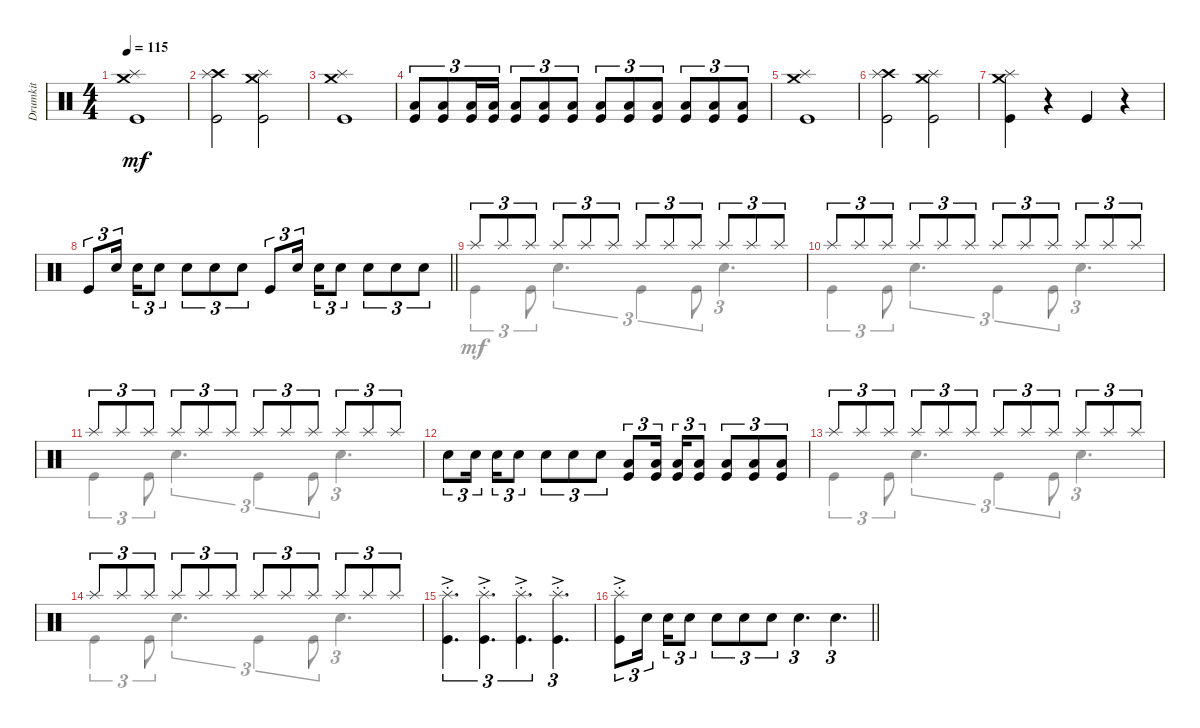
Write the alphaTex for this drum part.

\track ("Drumkit" "Drumkit") {instrument percussion}
\staff {score}
\articulation defaults
\voice
\ts (4 4)
\tempo 115
\clef neutral
\ks c
("Kick (hit)" "Splash (hit)" "Crash medium (hit)").1{dy mf} |
("Kick (hit)" "Crash high (hit)" "Splash (hit)").2 ("Kick (hit)" "Splash (hit)" "Crash medium (hit)").2 |
("Kick (hit)" "Splash (hit)" "Crash medium (hit)").1 |
("Low Tom (hit)" "Kick (hit)").8{tu (3 2)} ("Kick (hit)" "Low Tom (hit)").8{tu (3 2)} ("Low Tom (hit)" "Kick (hit)").16{tu (3 2)} ("Low Tom (hit)" "Kick (hit)").16{tu (3 2)} ("Low Tom (hit)" "Kick (hit)").8{tu (3 2)} ("Low Tom (hit)" "Kick (hit)").8{tu (3 2)} ("Low Tom (hit)" "Kick (hit)").8{tu (3 2)} ("Low Tom (hit)" "Kick (hit)").8{tu (3 2)} ("Low Tom (hit)" "Kick (hit)").8{tu (3 2)} ("Low Tom (hit)" "Kick (hit)").8{tu (3 2)} ("Low Tom (hit)" "Kick (hit)").8{tu (3 2)} ("Low Tom (hit)" "Kick (hit)").8{tu (3 2)} ("Low Tom (hit)" "Kick (hit)").8{tu (3 2)} |
("Kick (hit)" "Splash (hit)" "Crash medium (hit)").1 |
("Kick (hit)" "Crash high (hit)" "Splash (hit)").2 ("Kick (hit)" "Splash (hit)" "Crash medium (hit)").2 |
("Kick (hit)" "Splash (hit)" "Crash medium (hit)").4 r.4 "Kick (hit)".4 r.4 |
\barLineRight lightlight "Kick (hit)".8{tu (3 2)} "Snare (hit) 2".16{tu (3 2)} "Snare (hit) 2".16{tu (3 2)} "Snare (hit) 2".8{tu (3 2)} "Snare (hit) 2".8{tu (3 2)} "Snare (hit) 2".8{tu (3 2)} "Snare (hit) 2".8{tu (3 2)} "Kick (hit)".8{tu (3 2)} "Snare (hit) 2".16{tu (3 2)} "Snare (hit) 2".16{tu (3 2)} "Snare (hit) 2".8{tu (3 2)} "Snare (hit) 2".8{tu (3 2)} "Snare (hit) 2".8{tu (3 2)} "Snare (hit) 2".8{tu (3 2)}
|
"Splash (hit)".8{tu (3 2)} "Splash (hit)".8{tu (3 2)} "Splash (hit)".8{tu (3 2)} "Splash (hit)".8{tu (3 2)} "Splash (hit)".8{tu (3 2)} "Splash (hit)".8{tu (3 2)} "Splash (hit)".8{tu (3 2)} "Splash (hit)".8{tu (3 2)} "Splash (hit)".8{tu (3 2)} "Splash (hit)".8{tu (3 2)} "Splash (hit)".8{tu (3 2)} "Splash (hit)".8{tu (3 2)} |
"Splash (hit)".8{tu (3 2)} "Splash (hit)".8{tu (3 2)} "Splash (hit)".8{tu (3 2)} "Splash (hit)".8{tu (3 2)} "Splash (hit)".8{tu (3 2)} "Splash (hit)".8{tu (3 2)} "Splash (hit)".8{tu (3 2)} "Splash (hit)".8{tu (3 2)} "Splash (hit)".8{tu (3 2)} "Splash (hit)".8{tu (3 2)} "Splash (hit)".8{tu (3 2)} "Splash (hit)".8{tu (3 2)} |
"Splash (hit)".8{tu (3 2)} "Splash (hit)".8{tu (3 2)} "Splash (hit)".8{tu (3 2)} "Splash (hit)".8{tu (3 2)} "Splash (hit)".8{tu (3 2)} "Splash (hit)".8{tu (3 2)} "Splash (hit)".8{tu (3 2)} "Splash (hit)".8{tu (3 2)} "Splash (hit)".8{tu (3 2)} "Splash (hit)".8{tu (3 2)} "Splash (hit)".8{tu (3 2)} "Splash (hit)".8{tu (3 2)} |
"Snare (hit) 2".8{tu (3 2)} "Snare (hit) 2".16{tu (3 2)} "Snare (hit) 2".16{tu (3 2)} "Snare (hit) 2".8{tu (3 2)} "Snare (hit) 2".8{tu (3 2)} "Snare (hit) 2".8{tu (3 2)} "Snare (hit) 2".8{tu (3 2)} ("Kick (hit)" "Low Tom (hit)").8{tu (3 2)} ("Low Tom (hit)" "Kick (hit)").16{tu (3 2)} ("Low Tom (hit)" "Kick (hit)").16{tu (3 2)} ("Low Tom (hit)" "Kick (hit)").8{tu (3 2)} ("Low Tom (hit)" "Kick (hit)").8{tu (3 2)} ("Low Tom (hit)" "Kick (hit)").8{tu (3 2)} ("Low Tom (hit)" "Kick (hit)").8{tu (3 2)} |
"Splash (hit)".8{tu (3 2)} "Splash (hit)".8{tu (3 2)} "Splash (hit)".8{tu (3 2)} "Splash (hit)".8{tu (3 2)} "Splash (hit)".8{tu (3 2)} "Splash (hit)".8{tu (3 2)} "Splash (hit)".8{tu (3 2)} "Splash (hit)".8{tu (3 2)} "Splash (hit)".8{tu (3 2)} "Splash (hit)".8{tu (3 2)} "Splash (hit)".8{tu (3 2)} "Splash (hit)".8{tu (3 2)} |
"Splash (hit)".8{tu (3 2)} "Splash (hit)".8{tu (3 2)} "Splash (hit)".8{tu (3 2)} "Splash (hit)".8{tu (3 2)} "Splash (hit)".8{tu (3 2)} "Splash (hit)".8{tu (3 2)} "Splash (hit)".8{tu (3 2)} "Splash (hit)".8{tu (3 2)} "Splash (hit)".8{tu (3 2)} "Splash (hit)".8{tu (3 2)} "Splash (hit)".8{tu (3 2)} "Splash (hit)".8{tu (3 2)} |
("Splash (hit)"{ac st} "Kick (hit)").4{d tu (3 2)} ("Splash (hit)"{ac st} "Kick (hit)").4{d tu (3 2)} ("Splash (hit)"{ac st} "Kick (hit)").4{d tu (3 2)} ("Splash (hit)"{ac st} "Kick (hit)").4{d tu (3 2)} |
\barLineRight lightlight
("Splash (hit)"{ac st} "Kick (hit)").8{tu (3 2)} "Snare (hit) 2".16{tu (3 2)} "Snare (hit) 2".16{tu (3 2)} "Snare (hit) 2".8{tu (3 2)} "Snare (hit) 2".8{tu (3 2)} "Snare (hit) 2".8{tu (3 2)} "Snare (hit) 2".8{tu (3 2)} "Snare (hit) 2".4{d tu (3 2)} "Snare (hit) 2".4{d tu (3 2)}
\voice
\clef neutral
\ottava regular
\simile none
\ks c
|
|
|
|
|
|
|
\barLineRight lightlight
|
"Kick (hit)".4{tu (3 2)} "Kick (hit)".8{tu (3 2)} "Snare (hit) 2".4{d tu (3 2)} "Kick (hit)".4{tu (3 2)} "Kick (hit)".8{tu (3 2)} "Snare (hit) 2".4{d tu (3 2)} |
"Kick (hit)".4{tu (3 2)} "Kick (hit)".8{tu (3 2)} "Snare (hit) 2".4{d tu (3 2)} "Kick (hit)".4{tu (3 2)} "Kick (hit)".8{tu (3 2)} "Snare (hit) 2".4{d tu (3 2)} |
"Kick (hit)".4{tu (3 2)} "Kick (hit)".8{tu (3 2)} "Snare (hit) 2".4{d tu (3 2)} "Kick (hit)".4{tu (3 2)} "Kick (hit)".8{tu (3 2)} "Snare (hit) 2".4{d tu (3 2)} |
|
"Kick (hit)".4{tu (3 2)} "Kick (hit)".8{tu (3 2)} "Snare (hit) 2".4{d tu (3 2)} "Kick (hit)".4{tu (3 2)} "Kick (hit)".8{tu (3 2)} "Snare (hit) 2".4{d tu (3 2)} |
"Kick (hit)".4{tu (3 2)} "Kick (hit)".8{tu (3 2)} "Snare (hit) 2".4{d tu (3 2)} "Kick (hit)".4{tu (3 2)} "Kick (hit)".8{tu (3 2)} "Snare (hit) 2".4{d tu (3 2)} |
|
\barLineRight lightlight
